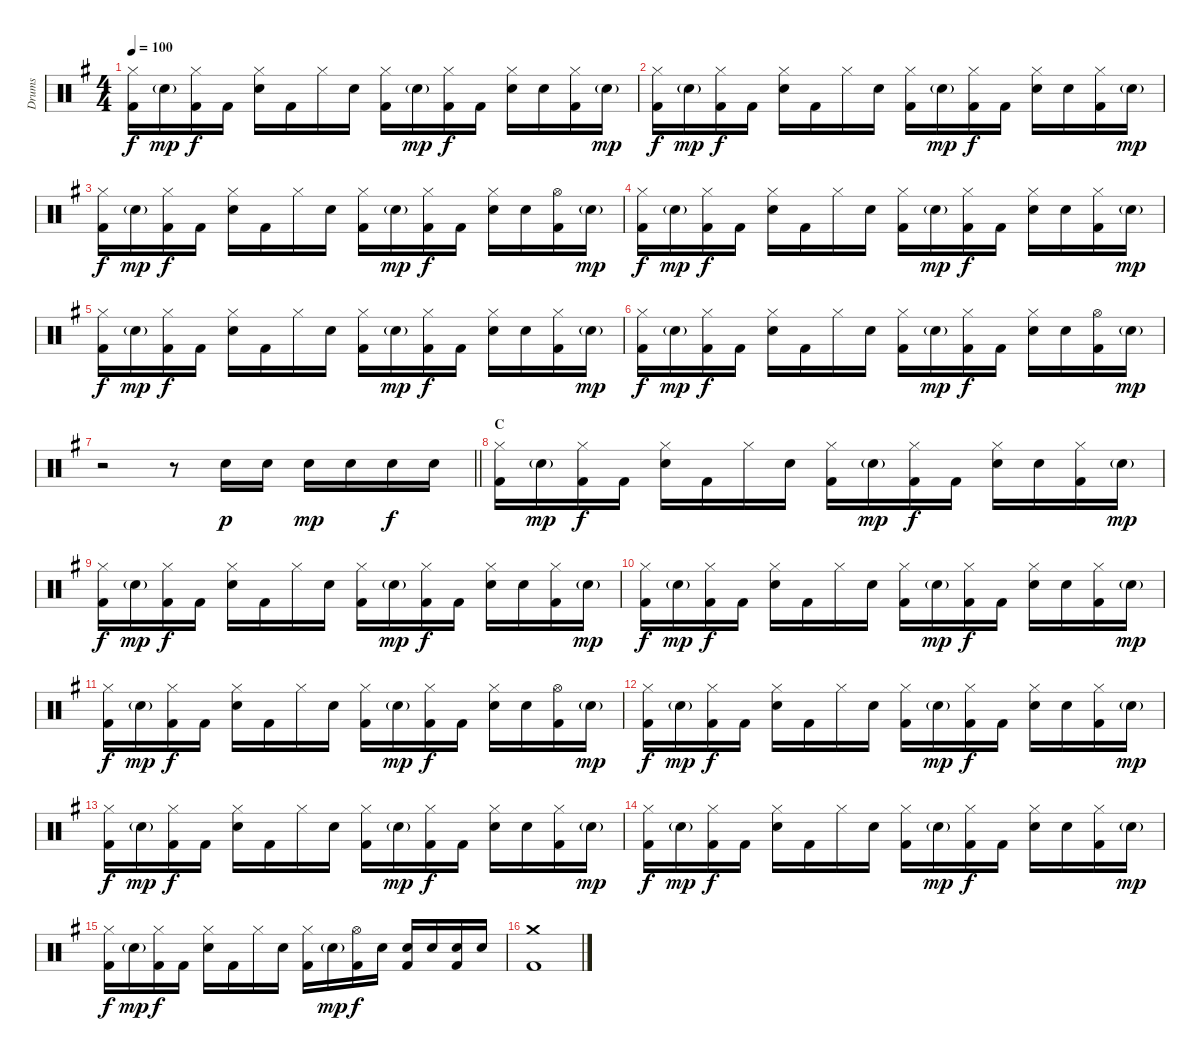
\track ("Drums" "Drums") {instrument percussion}
\staff {score}
\articulation defaults
\ts (4 4)
\tempo 100
\clef neutral
\ks g
("Hi-Hat (closed)" "Kick (hit) 2").16{dy f} "Electric Snare (hit)"{g}.16{dy mp} ("Kick (hit) 2" "Hi-Hat (closed)").16{dy f} "Kick (hit) 2".16 ("Electric Snare (hit)" "Hi-Hat (closed)").16 "Kick (hit) 2".16 "Hi-Hat (closed)".16 "Electric Snare (hit)".16 ("Kick (hit) 2" "Hi-Hat (closed)").16 "Electric Snare (hit)"{g}.16{dy mp} ("Hi-Hat (closed)" "Kick (hit) 2").16{dy f} "Kick (hit) 2".16 ("Electric Snare (hit)" "Hi-Hat (closed)").16 "Electric Snare (hit)".16 ("Hi-Hat (closed)" "Kick (hit) 2").16 "Electric Snare (hit)"{g}.16{dy mp} |
("Hi-Hat (closed)" "Kick (hit) 2").16{dy f} "Electric Snare (hit)"{g}.16{dy mp} ("Kick (hit) 2" "Hi-Hat (closed)").16{dy f} "Kick (hit) 2".16 ("Electric Snare (hit)" "Hi-Hat (closed)").16 "Kick (hit) 2".16 "Hi-Hat (closed)".16 "Electric Snare (hit)".16 ("Kick (hit) 2" "Hi-Hat (closed)").16 "Electric Snare (hit)"{g}.16{dy mp} ("Hi-Hat (closed)" "Kick (hit) 2").16{dy f} "Kick (hit) 2".16 ("Electric Snare (hit)" "Hi-Hat (closed)").16 "Electric Snare (hit)".16 ("Hi-Hat (closed)" "Kick (hit) 2").16 "Electric Snare (hit)"{g}.16{dy mp} |
("Hi-Hat (closed)" "Kick (hit) 2").16{dy f} "Electric Snare (hit)"{g}.16{dy mp} ("Kick (hit) 2" "Hi-Hat (closed)").16{dy f} "Kick (hit) 2".16 ("Electric Snare (hit)" "Hi-Hat (closed)").16 "Kick (hit) 2".16 "Hi-Hat (closed)".16 "Electric Snare (hit)".16 ("Kick (hit) 2" "Hi-Hat (closed)").16 "Electric Snare (hit)"{g}.16{dy mp} ("Hi-Hat (closed)" "Kick (hit) 2").16{dy f} "Kick (hit) 2".16 ("Electric Snare (hit)" "Hi-Hat (closed)").16 "Electric Snare (hit)".16 ("Hi-Hat (open)" "Kick (hit) 2").16 "Electric Snare (hit)"{g}.16{dy mp} |
("Hi-Hat (closed)" "Kick (hit) 2").16{dy f} "Electric Snare (hit)"{g}.16{dy mp} ("Kick (hit) 2" "Hi-Hat (closed)").16{dy f} "Kick (hit) 2".16 ("Electric Snare (hit)" "Hi-Hat (closed)").16 "Kick (hit) 2".16 "Hi-Hat (closed)".16 "Electric Snare (hit)".16 ("Kick (hit) 2" "Hi-Hat (closed)").16 "Electric Snare (hit)"{g}.16{dy mp} ("Hi-Hat (closed)" "Kick (hit) 2").16{dy f} "Kick (hit) 2".16 ("Electric Snare (hit)" "Hi-Hat (closed)").16 "Electric Snare (hit)".16 ("Hi-Hat (closed)" "Kick (hit) 2").16 "Electric Snare (hit)"{g}.16{dy mp} |
("Hi-Hat (closed)" "Kick (hit) 2").16{dy f} "Electric Snare (hit)"{g}.16{dy mp} ("Kick (hit) 2" "Hi-Hat (closed)").16{dy f} "Kick (hit) 2".16 ("Electric Snare (hit)" "Hi-Hat (closed)").16 "Kick (hit) 2".16 "Hi-Hat (closed)".16 "Electric Snare (hit)".16 ("Kick (hit) 2" "Hi-Hat (closed)").16 "Electric Snare (hit)"{g}.16{dy mp} ("Hi-Hat (closed)" "Kick (hit) 2").16{dy f} "Kick (hit) 2".16 ("Electric Snare (hit)" "Hi-Hat (closed)").16 "Electric Snare (hit)".16 ("Hi-Hat (closed)" "Kick (hit) 2").16 "Electric Snare (hit)"{g}.16{dy mp} |
("Hi-Hat (closed)" "Kick (hit) 2").16{dy f} "Electric Snare (hit)"{g}.16{dy mp} ("Kick (hit) 2" "Hi-Hat (closed)").16{dy f} "Kick (hit) 2".16 ("Electric Snare (hit)" "Hi-Hat (closed)").16 "Kick (hit) 2".16 "Hi-Hat (closed)".16 "Electric Snare (hit)".16 ("Kick (hit) 2" "Hi-Hat (closed)").16 "Electric Snare (hit)"{g}.16{dy mp} ("Hi-Hat (closed)" "Kick (hit) 2").16{dy f} "Kick (hit) 2".16 ("Electric Snare (hit)" "Hi-Hat (closed)").16 "Electric Snare (hit)".16 ("Hi-Hat (open)" "Kick (hit) 2").16 "Electric Snare (hit)"{g}.16{dy mp} |
\barLineRight lightlight
r.2 r.8 "Electric Snare (hit)".16{dy p} "Electric Snare (hit)".16 "Electric Snare (hit)".16{dy mp} "Electric Snare (hit)".16 "Electric Snare (hit)".16{dy f} "Electric Snare (hit)".16 |
\section ("" "C")
("Hi-Hat (closed)" "Kick (hit) 2").16 "Electric Snare (hit)"{g}.16{dy mp} ("Kick (hit) 2" "Hi-Hat (closed)").16{dy f} "Kick (hit) 2".16 ("Electric Snare (hit)" "Hi-Hat (closed)").16 "Kick (hit) 2".16 "Hi-Hat (closed)".16 "Electric Snare (hit)".16 ("Kick (hit) 2" "Hi-Hat (closed)").16 "Electric Snare (hit)"{g}.16{dy mp} ("Hi-Hat (closed)" "Kick (hit) 2").16{dy f} "Kick (hit) 2".16 ("Electric Snare (hit)" "Hi-Hat (closed)").16 "Electric Snare (hit)".16 ("Hi-Hat (closed)" "Kick (hit) 2").16 "Electric Snare (hit)"{g}.16{dy mp} |
("Hi-Hat (closed)" "Kick (hit) 2").16{dy f} "Electric Snare (hit)"{g}.16{dy mp} ("Kick (hit) 2" "Hi-Hat (closed)").16{dy f} "Kick (hit) 2".16 ("Electric Snare (hit)" "Hi-Hat (closed)").16 "Kick (hit) 2".16 "Hi-Hat (closed)".16 "Electric Snare (hit)".16 ("Kick (hit) 2" "Hi-Hat (closed)").16 "Electric Snare (hit)"{g}.16{dy mp} ("Hi-Hat (closed)" "Kick (hit) 2").16{dy f} "Kick (hit) 2".16 ("Electric Snare (hit)" "Hi-Hat (closed)").16 "Electric Snare (hit)".16 ("Hi-Hat (closed)" "Kick (hit) 2").16 "Electric Snare (hit)"{g}.16{dy mp} |
("Hi-Hat (closed)" "Kick (hit) 2").16{dy f} "Electric Snare (hit)"{g}.16{dy mp} ("Kick (hit) 2" "Hi-Hat (closed)").16{dy f} "Kick (hit) 2".16 ("Electric Snare (hit)" "Hi-Hat (closed)").16 "Kick (hit) 2".16 "Hi-Hat (closed)".16 "Electric Snare (hit)".16 ("Kick (hit) 2" "Hi-Hat (closed)").16 "Electric Snare (hit)"{g}.16{dy mp} ("Hi-Hat (closed)" "Kick (hit) 2").16{dy f} "Kick (hit) 2".16 ("Electric Snare (hit)" "Hi-Hat (closed)").16 "Electric Snare (hit)".16 ("Hi-Hat (closed)" "Kick (hit) 2").16 "Electric Snare (hit)"{g}.16{dy mp} |
("Hi-Hat (closed)" "Kick (hit) 2").16{dy f} "Electric Snare (hit)"{g}.16{dy mp} ("Kick (hit) 2" "Hi-Hat (closed)").16{dy f} "Kick (hit) 2".16 ("Electric Snare (hit)" "Hi-Hat (closed)").16 "Kick (hit) 2".16 "Hi-Hat (closed)".16 "Electric Snare (hit)".16 ("Kick (hit) 2" "Hi-Hat (closed)").16 "Electric Snare (hit)"{g}.16{dy mp} ("Hi-Hat (closed)" "Kick (hit) 2").16{dy f} "Kick (hit) 2".16 ("Electric Snare (hit)" "Hi-Hat (closed)").16 "Electric Snare (hit)".16 ("Hi-Hat (open)" "Kick (hit) 2").16 "Electric Snare (hit)"{g}.16{dy mp} |
("Hi-Hat (closed)" "Kick (hit) 2").16{dy f} "Electric Snare (hit)"{g}.16{dy mp} ("Kick (hit) 2" "Hi-Hat (closed)").16{dy f} "Kick (hit) 2".16 ("Electric Snare (hit)" "Hi-Hat (closed)").16 "Kick (hit) 2".16 "Hi-Hat (closed)".16 "Electric Snare (hit)".16 ("Kick (hit) 2" "Hi-Hat (closed)").16 "Electric Snare (hit)"{g}.16{dy mp} ("Hi-Hat (closed)" "Kick (hit) 2").16{dy f} "Kick (hit) 2".16 ("Electric Snare (hit)" "Hi-Hat (closed)").16 "Electric Snare (hit)".16 ("Hi-Hat (closed)" "Kick (hit) 2").16 "Electric Snare (hit)"{g}.16{dy mp} |
("Hi-Hat (closed)" "Kick (hit) 2").16{dy f} "Electric Snare (hit)"{g}.16{dy mp} ("Kick (hit) 2" "Hi-Hat (closed)").16{dy f} "Kick (hit) 2".16 ("Electric Snare (hit)" "Hi-Hat (closed)").16 "Kick (hit) 2".16 "Hi-Hat (closed)".16 "Electric Snare (hit)".16 ("Kick (hit) 2" "Hi-Hat (closed)").16 "Electric Snare (hit)"{g}.16{dy mp} ("Hi-Hat (closed)" "Kick (hit) 2").16{dy f} "Kick (hit) 2".16 ("Electric Snare (hit)" "Hi-Hat (closed)").16 "Electric Snare (hit)".16 ("Hi-Hat (closed)" "Kick (hit) 2").16 "Electric Snare (hit)"{g}.16{dy mp} |
("Hi-Hat (closed)" "Kick (hit) 2").16{dy f} "Electric Snare (hit)"{g}.16{dy mp} ("Kick (hit) 2" "Hi-Hat (closed)").16{dy f} "Kick (hit) 2".16 ("Electric Snare (hit)" "Hi-Hat (closed)").16 "Kick (hit) 2".16 "Hi-Hat (closed)".16 "Electric Snare (hit)".16 ("Kick (hit) 2" "Hi-Hat (closed)").16 "Electric Snare (hit)"{g}.16{dy mp} ("Hi-Hat (closed)" "Kick (hit) 2").16{dy f} "Kick (hit) 2".16 ("Electric Snare (hit)" "Hi-Hat (closed)").16 "Electric Snare (hit)".16 ("Hi-Hat (closed)" "Kick (hit) 2").16 "Electric Snare (hit)"{g}.16{dy mp} |
("Hi-Hat (closed)" "Kick (hit) 2").16{dy f} "Electric Snare (hit)"{g}.16{dy mp} ("Kick (hit) 2" "Hi-Hat (closed)").16{dy f} "Kick (hit) 2".16 ("Electric Snare (hit)" "Hi-Hat (closed)").16 "Kick (hit) 2".16 "Hi-Hat (closed)".16 "Electric Snare (hit)".16 ("Kick (hit) 2" "Hi-Hat (closed)").16 "Electric Snare (hit)"{g}.16{dy mp} ("Hi-Hat (open)" "Kick (hit) 2").16{dy f} "Electric Snare (hit)".16 ("Kick (hit) 2" "Electric Snare (hit)").16 "Electric Snare (hit)".16 ("Kick (hit) 2" "Electric Snare (hit)").16 "Electric Snare (hit)".16 |
("Crash medium (hit)" "Kick (hit) 2").1
